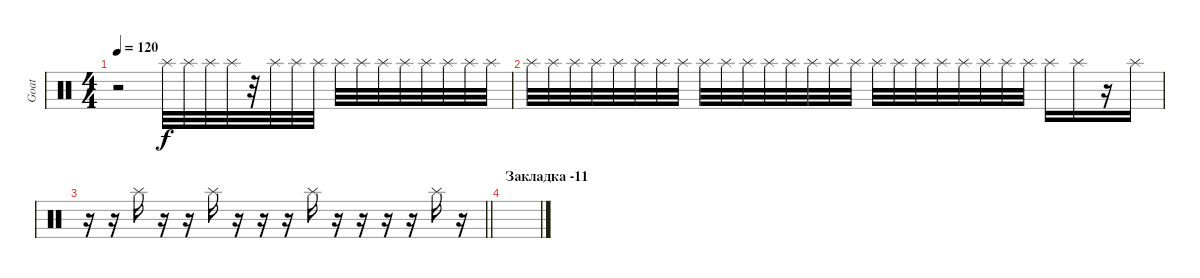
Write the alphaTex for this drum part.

\track ("Goat" "Goat") {instrument percussion}
\staff {score}
\articulation defaults
\ts (4 4)
\tempo 120
\clef neutral
\ks c
r.2{dy f} "Splash (hit)".32 "Splash (hit)".32 "Splash (hit)".32 "Splash (hit)".32 r.32 "Splash (hit)".32 "Splash (hit)".32 "Splash (hit)".32 "Splash (hit)".32 "Splash (hit)".32 "Splash (hit)".32 "Splash (hit)".32 "Splash (hit)".32 "Splash (hit)".32 "Splash (hit)".32 "Splash (hit)".32 |
"Splash (hit)".32 "Splash (hit)".32 "Splash (hit)".32 "Splash (hit)".32 "Splash (hit)".32 "Splash (hit)".32 "Splash (hit)".32 "Splash (hit)".32 "Splash (hit)".32 "Splash (hit)".32 "Splash (hit)".32 "Splash (hit)".32 "Splash (hit)".32 "Splash (hit)".32 "Splash (hit)".32 "Splash (hit)".32 "Splash (hit)".32 "Splash (hit)".32 "Splash (hit)".32 "Splash (hit)".32 "Splash (hit)".32 "Splash (hit)".32 "Splash (hit)".32 "Splash (hit)".32 "Splash (hit)".16 "Splash (hit)".16 r.16 "Splash (hit)".16 |
\barLineRight lightlight
r.16 r.16 "Splash (hit)".16 r.16 r.16 "Splash (hit)".16 r.16 r.16 r.16 "Splash (hit)".16 r.16 r.16 r.16 r.16 "Splash (hit)".16 r.16 |
\section ("" "Закладка -11")
